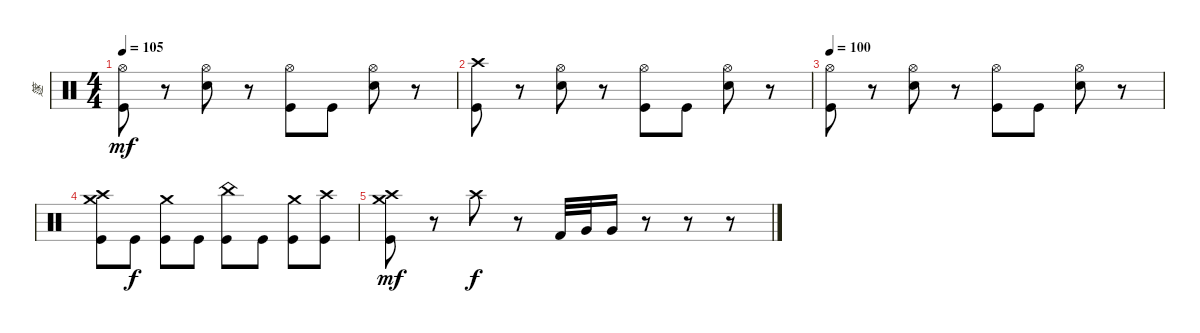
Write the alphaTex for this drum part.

\track ("篴" "篴") {instrument percussion}
\staff {score}
\articulation defaults
\ts (4 4)
\tempo 105
\clef neutral
\ks c
("Hi-Hat (open)" "Kick (hit)").8{dy mf} r.8 ("Hi-Hat (open)" "Snare (hit) 2").8 r.8 ("Hi-Hat (open)" "Kick (hit)").8 "Kick (hit)".8 ("Hi-Hat (open)" "Snare (hit) 2").8 r.8 |
("Crash high (hit)" "Kick (hit)").8 r.8 ("Hi-Hat (open)" "Snare (hit) 2").8 r.8 ("Hi-Hat (open)" "Kick (hit)").8 "Kick (hit)".8 ("Hi-Hat (open)" "Snare (hit) 2").8 r.8 |
\tempo 100
("Hi-Hat (open)" "Kick (hit)").8 r.8 ("Hi-Hat (open)" "Snare (hit) 2").8 r.8 ("Hi-Hat (open)" "Kick (hit)").8 "Kick (hit)".8 ("Hi-Hat (open)" "Snare (hit) 2").8 r.8 |
("Crash high (hit)" "Crash medium (hit)" "Kick (hit)").8 "Kick (hit)".8{dy f} ("Crash medium (hit)" "Kick (hit)").8 "Kick (hit)".8 ("China (hit)" "Kick (hit)").8 "Kick (hit)".8 ("Crash medium (hit)" "Kick (hit)").8 ("Crash high (hit)" "Kick (hit)").8 |
("Crash high (hit)" "Crash medium (hit)" "Kick (hit)").8{dy mf} r.8 "Crash high (hit)".8{dy f} r.8 "Kick (hit) 2".32 "Very Low Tom (hit)".32 "Very Low Tom (hit)".16 r.8 r.8 r.8
